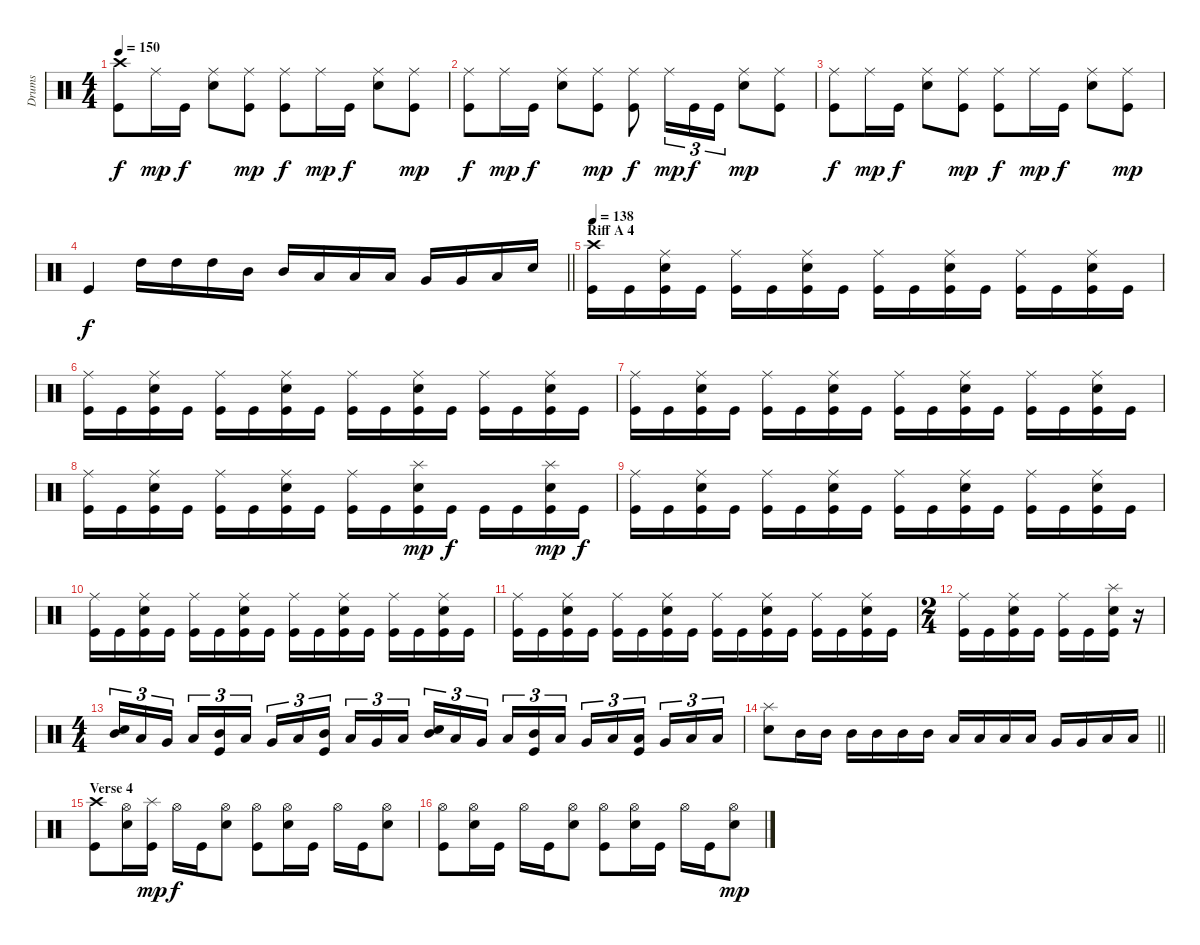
\track ("Drums" "Drums") {instrument percussion}
\staff {score}
\articulation defaults
\ts (4 4)
\tempo 150
\clef neutral
\ks c
("Crash high (hit)" "Kick (hit)").8{dy f} "Ride (middle)".16{dy mp} "Kick (hit)".16{dy f} ("Ride (middle)" "Electric Snare (hit)").8 ("Ride (middle)" "Kick (hit)").8{dy mp} ("Ride (middle)" "Kick (hit)").8{dy f} "Ride (middle)".16{dy mp} "Kick (hit)".16{dy f} ("Ride (middle)" "Electric Snare (hit)").8 ("Ride (middle)" "Kick (hit)").8{dy mp} |
("Ride (middle)" "Kick (hit)").8{dy f} "Ride (middle)".16{dy mp} "Kick (hit)".16{dy f} ("Ride (middle)" "Electric Snare (hit)").8 ("Ride (middle)" "Kick (hit)").8{dy mp} ("Ride (middle)" "Kick (hit)").8{dy f} "Ride (middle)".16{tu (3 2) dy mp} "Kick (hit)".16{tu (3 2) dy f} "Kick (hit)".16{tu (3 2)} ("Ride (middle)" "Electric Snare (hit)").8{dy mp} ("Ride (middle)" "Kick (hit)").8 |
("Ride (middle)" "Kick (hit)").8{dy f} "Ride (middle)".16{dy mp} "Kick (hit)".16{dy f} ("Ride (middle)" "Electric Snare (hit)").8 ("Ride (middle)" "Kick (hit)").8{dy mp} ("Ride (middle)" "Kick (hit)").8{dy f} "Ride (middle)".16{dy mp} "Kick (hit)".16{dy f} ("Ride (middle)" "Electric Snare (hit)").8 ("Ride (middle)" "Kick (hit)").8{dy mp} |
\barLineRight lightlight "Kick (hit)".4{dy f} "High Tom (hit)".16 "High Tom (hit)".16 "High Tom (hit)".16 "Mid Tom (hit)".16 "Mid Tom (hit)".16 "Low Tom (hit)".16 "Low Tom (hit)".16 "Low Tom (hit)".16 "Very Low Tom (hit)".16 "Very Low Tom (hit)".16 "Low Floor Tom (hit)".16 "Snare (hit)".16
|
\section ("" "Riff A 4")
\tempo 138
("Crash high (hit)" "Kick (hit)").16 "Kick (hit)".16 ("Ride (middle)" "Electric Snare (hit)" "Kick (hit)").16 "Kick (hit)".16 ("Ride (middle)" "Kick (hit)").16 "Kick (hit)".16 ("Ride (middle)" "Electric Snare (hit)" "Kick (hit)").16 "Kick (hit)".16 ("Ride (middle)" "Kick (hit)").16 "Kick (hit)".16 ("Ride (middle)" "Electric Snare (hit)" "Kick (hit)").16 "Kick (hit)".16 ("Ride (middle)" "Kick (hit)").16 "Kick (hit)".16 ("Ride (middle)" "Electric Snare (hit)" "Kick (hit)").16 "Kick (hit)".16 |
("Ride (middle)" "Kick (hit)").16 "Kick (hit)".16 ("Ride (middle)" "Electric Snare (hit)" "Kick (hit)").16 "Kick (hit)".16 ("Ride (middle)" "Kick (hit)").16 "Kick (hit)".16 ("Ride (middle)" "Electric Snare (hit)" "Kick (hit)").16 "Kick (hit)".16 ("Ride (middle)" "Kick (hit)").16 "Kick (hit)".16 ("Ride (middle)" "Electric Snare (hit)" "Kick (hit)").16 "Kick (hit)".16 ("Ride (middle)" "Kick (hit)").16 "Kick (hit)".16 ("Ride (middle)" "Electric Snare (hit)" "Kick (hit)").16 "Kick (hit)".16 |
("Ride (middle)" "Kick (hit)").16 "Kick (hit)".16 ("Ride (middle)" "Electric Snare (hit)" "Kick (hit)").16 "Kick (hit)".16 ("Ride (middle)" "Kick (hit)").16 "Kick (hit)".16 ("Ride (middle)" "Electric Snare (hit)" "Kick (hit)").16 "Kick (hit)".16 ("Ride (middle)" "Kick (hit)").16 "Kick (hit)".16 ("Ride (middle)" "Electric Snare (hit)" "Kick (hit)").16 "Kick (hit)".16 ("Ride (middle)" "Kick (hit)").16 "Kick (hit)".16 ("Ride (middle)" "Electric Snare (hit)" "Kick (hit)").16 "Kick (hit)".16 |
("Ride (middle)" "Kick (hit)").16 "Kick (hit)".16 ("Ride (middle)" "Electric Snare (hit)" "Kick (hit)").16 "Kick (hit)".16 ("Ride (middle)" "Kick (hit)").16 "Kick (hit)".16 ("Ride (middle)" "Electric Snare (hit)" "Kick (hit)").16 "Kick (hit)".16 ("Ride (middle)" "Kick (hit)").16 "Kick (hit)".16 ("Splash (hit)" "Electric Snare (hit)" "Kick (hit)").16{dy mp} "Kick (hit)".16{dy f} "Kick (hit)".16 "Kick (hit)".16 ("Splash (hit)" "Electric Snare (hit)" "Kick (hit)").16{dy mp} "Kick (hit)".16{dy f} |
("Ride (middle)" "Kick (hit)").16 "Kick (hit)".16 ("Ride (middle)" "Electric Snare (hit)" "Kick (hit)").16 "Kick (hit)".16 ("Ride (middle)" "Kick (hit)").16 "Kick (hit)".16 ("Ride (middle)" "Electric Snare (hit)" "Kick (hit)").16 "Kick (hit)".16 ("Ride (middle)" "Kick (hit)").16 "Kick (hit)".16 ("Ride (middle)" "Electric Snare (hit)" "Kick (hit)").16 "Kick (hit)".16 ("Ride (middle)" "Kick (hit)").16 "Kick (hit)".16 ("Ride (middle)" "Electric Snare (hit)" "Kick (hit)").16 "Kick (hit)".16 |
("Ride (middle)" "Kick (hit)").16 "Kick (hit)".16 ("Ride (middle)" "Electric Snare (hit)" "Kick (hit)").16 "Kick (hit)".16 ("Ride (middle)" "Kick (hit)").16 "Kick (hit)".16 ("Ride (middle)" "Electric Snare (hit)" "Kick (hit)").16 "Kick (hit)".16 ("Ride (middle)" "Kick (hit)").16 "Kick (hit)".16 ("Ride (middle)" "Electric Snare (hit)" "Kick (hit)").16 "Kick (hit)".16 ("Ride (middle)" "Kick (hit)").16 "Kick (hit)".16 ("Ride (middle)" "Electric Snare (hit)" "Kick (hit)").16 "Kick (hit)".16 |
("Ride (middle)" "Kick (hit)").16 "Kick (hit)".16 ("Ride (middle)" "Electric Snare (hit)" "Kick (hit)").16 "Kick (hit)".16 ("Ride (middle)" "Kick (hit)").16 "Kick (hit)".16 ("Ride (middle)" "Electric Snare (hit)" "Kick (hit)").16 "Kick (hit)".16 ("Ride (middle)" "Kick (hit)").16 "Kick (hit)".16 ("Ride (middle)" "Electric Snare (hit)" "Kick (hit)").16 "Kick (hit)".16 ("Ride (middle)" "Kick (hit)").16 "Kick (hit)".16 ("Ride (middle)" "Electric Snare (hit)" "Kick (hit)").16 "Kick (hit)".16 |
\ts (2 4)
("Ride (middle)" "Kick (hit)").16 "Kick (hit)".16 ("Ride (middle)" "Electric Snare (hit)" "Kick (hit)").16 "Kick (hit)".16 ("Ride (middle)" "Kick (hit)").16 "Kick (hit)".16 ("Splash (hit)" "Electric Snare (hit)" "Kick (hit)").16 r.16 |
\ts (4 4)
("Electric Snare (hit)" "Mid Tom (hit)").16{tu (3 2)} "Low Tom (hit)".16{tu (3 2)} "Very Low Tom (hit)".16{tu (3 2) beam splitsecondary} "Low Floor Tom (hit)".16{tu (3 2)} ("Kick (hit)" "Mid Tom (hit)").16{tu (3 2)} "Low Tom (hit)".16{tu (3 2)} "Very Low Tom (hit)".16{tu (3 2)} "Low Floor Tom (hit)".16{tu (3 2)} ("Kick (hit)" "Mid Tom (hit)").16{tu (3 2) beam splitsecondary} "Low Tom (hit)".16{tu (3 2)} "Very Low Tom (hit)".16{tu (3 2)} "Low Floor Tom (hit)".16{tu (3 2)} ("Electric Snare (hit)" "Mid Tom (hit)").16{tu (3 2)} "Low Tom (hit)".16{tu (3 2)} "Very Low Tom (hit)".16{tu (3 2) beam splitsecondary} "Low Floor Tom (hit)".16{tu (3 2)} ("Kick (hit)" "Mid Tom (hit)").16{tu (3 2)} "Low Tom (hit)".16{tu (3 2)} "Very Low Tom (hit)".16{tu (3 2)} "Low Floor Tom (hit)".16{tu (3 2)} ("Kick (hit)" "Low Tom (hit)").16{tu (3 2) beam splitsecondary} "Very Low Tom (hit)".16{tu (3 2)} "Low Floor Tom (hit)".16{tu (3 2)} "Low Floor Tom (hit)".16{tu (3 2)} |
\barLineRight lightlight
("Splash (hit)" "Electric Snare (hit)").8 "Mid Tom (hit)".16 "Mid Tom (hit)".16 "Mid Tom (hit)".16 "Mid Tom (hit)".16 "Mid Tom (hit)".16 "Mid Tom (hit)".16 "Low Tom (hit)".16 "Low Tom (hit)".16 "Low Tom (hit)".16 "Low Tom (hit)".16 "Very Low Tom (hit)".16 "Very Low Tom (hit)".16 "Low Floor Tom (hit)".16 "Low Floor Tom (hit)".16 |
\section ("" "Verse 4")
("Crash high (hit)" "Kick (hit)").8 ("Hi-Hat (open)" "Electric Snare (hit)").16 ("Splash (hit)" "Kick (hit)").16{dy mp} "Hi-Hat (open)".16{dy f} "Kick (hit)".16 ("Hi-Hat (open)" "Electric Snare (hit)").8 ("Hi-Hat (open)" "Kick (hit)").8 ("Hi-Hat (open)" "Electric Snare (hit)").16 "Kick (hit)".16 "Hi-Hat (open)".16 "Kick (hit)".16 ("Hi-Hat (open)" "Electric Snare (hit)").8 |
("Hi-Hat (open)" "Kick (hit)").8 ("Hi-Hat (open)" "Electric Snare (hit)").16 "Kick (hit)".16 "Hi-Hat (open)".16 "Kick (hit)".16 ("Hi-Hat (open)" "Electric Snare (hit)").8 ("Hi-Hat (open)" "Kick (hit)").8 ("Hi-Hat (open)" "Electric Snare (hit)").16 "Kick (hit)".16 "Hi-Hat (open)".16 "Kick (hit)".16 ("Hi-Hat (open)" "Electric Snare (hit)").8{dy mp}
